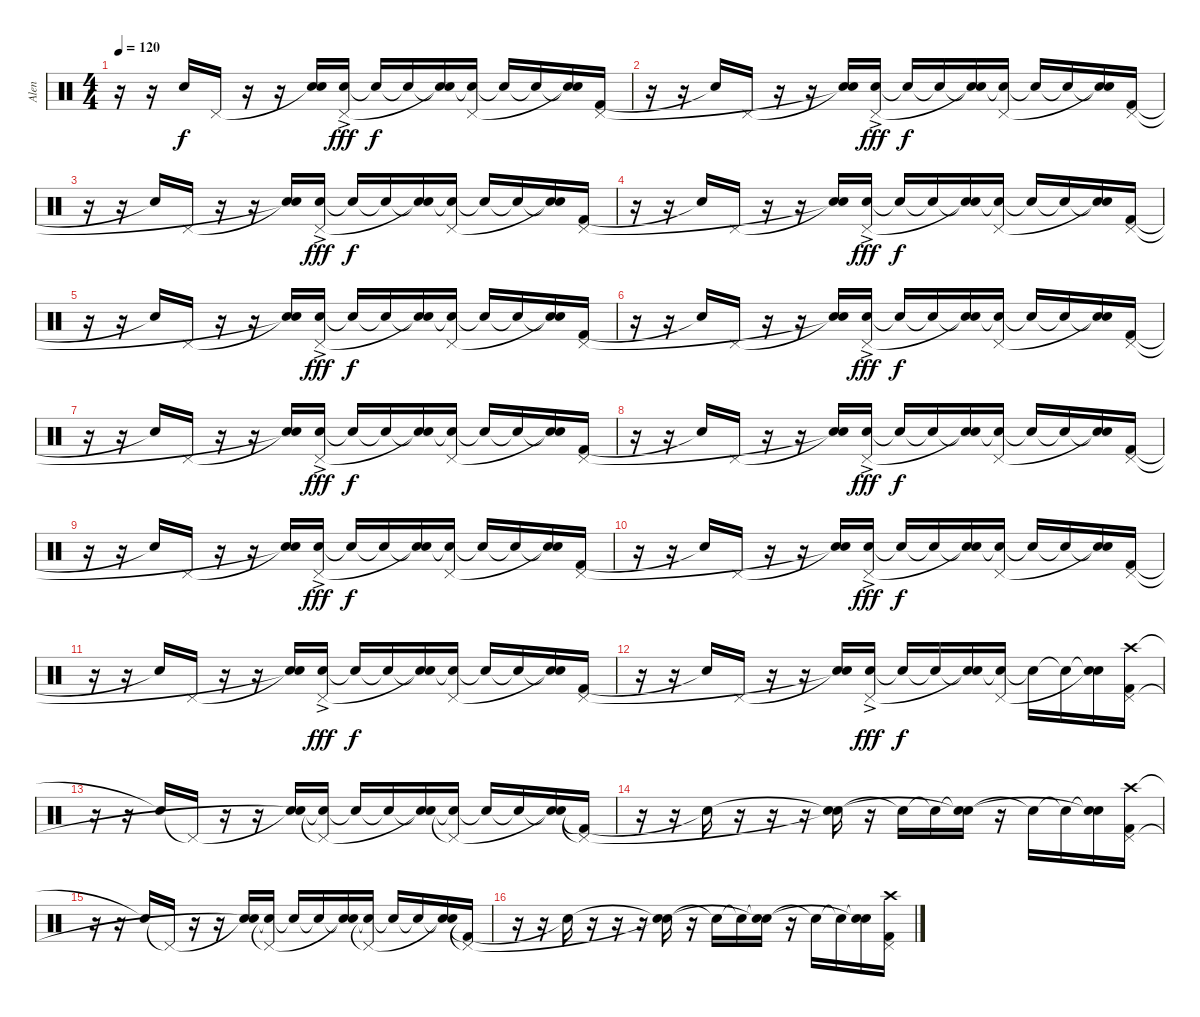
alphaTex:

\track ("Alen" "Alen") {instrument percussion}
\staff {score}
\articulation defaults
\ts (4 4)
\tempo 120
\clef neutral
\ks c
r.16{dy f} r.16 "Snare (hit)"{t}.16 "Pedal Hi-Hat (hit)".16 r.16 r.16 ("Snare (hit)"{t} "Snare (hit)"{t}).16 ("Snare (hit) 2"{ac} "Pedal Hi-Hat (hit)").16{dy fff} "Snare (hit)"{t}.16{dy f} "Snare (hit)"{t}.16 ("Snare (hit)"{t} "Snare (hit)"{t}).16 ("Snare (hit)"{t} "Pedal Hi-Hat (hit)").16 "Snare (hit)"{t}.16 "Snare (hit)"{t}.16 ("Snare (hit)"{t} "Snare (hit)"{t}).16 ("Kick (hit) 2" "Pedal Hi-Hat (hit)").16 |
r.16 r.16 "Snare (hit)"{t}.16 "Pedal Hi-Hat (hit)".16 r.16 r.16 ("Snare (hit)"{t} "Snare (hit)"{t}).16 ("Snare (hit) 2"{ac} "Pedal Hi-Hat (hit)").16{dy fff} "Snare (hit)"{t}.16{dy f} "Snare (hit)"{t}.16 ("Snare (hit)"{t} "Snare (hit)"{t}).16 ("Snare (hit)"{t} "Pedal Hi-Hat (hit)").16 "Snare (hit)"{t}.16 "Snare (hit)"{t}.16 ("Snare (hit)"{t} "Snare (hit)"{t}).16 ("Kick (hit) 2" "Pedal Hi-Hat (hit)").16 |
r.16 r.16 "Snare (hit)"{t}.16 "Pedal Hi-Hat (hit)".16 r.16 r.16 ("Snare (hit)"{t} "Snare (hit)"{t}).16 ("Snare (hit) 2"{ac} "Pedal Hi-Hat (hit)").16{dy fff} "Snare (hit)"{t}.16{dy f} "Snare (hit)"{t}.16 ("Snare (hit)"{t} "Snare (hit)"{t}).16 ("Snare (hit)"{t} "Pedal Hi-Hat (hit)").16 "Snare (hit)"{t}.16 "Snare (hit)"{t}.16 ("Snare (hit)"{t} "Snare (hit)"{t}).16 ("Kick (hit) 2" "Pedal Hi-Hat (hit)").16 |
r.16 r.16 "Snare (hit)"{t}.16 "Pedal Hi-Hat (hit)".16 r.16 r.16 ("Snare (hit)"{t} "Snare (hit)"{t}).16 ("Snare (hit) 2"{ac} "Pedal Hi-Hat (hit)").16{dy fff} "Snare (hit)"{t}.16{dy f} "Snare (hit)"{t}.16 ("Snare (hit)"{t} "Snare (hit)"{t}).16 ("Snare (hit)"{t} "Pedal Hi-Hat (hit)").16 "Snare (hit)"{t}.16 "Snare (hit)"{t}.16 ("Snare (hit)"{t} "Snare (hit)"{t}).16 ("Kick (hit) 2" "Pedal Hi-Hat (hit)").16 |
r.16 r.16 "Snare (hit)"{t}.16 "Pedal Hi-Hat (hit)".16 r.16 r.16 ("Snare (hit)"{t} "Snare (hit)"{t}).16 ("Snare (hit) 2"{ac} "Pedal Hi-Hat (hit)").16{dy fff} "Snare (hit)"{t}.16{dy f} "Snare (hit)"{t}.16 ("Snare (hit)"{t} "Snare (hit)"{t}).16 ("Snare (hit)"{t} "Pedal Hi-Hat (hit)").16 "Snare (hit)"{t}.16 "Snare (hit)"{t}.16 ("Snare (hit)"{t} "Snare (hit)"{t}).16 ("Kick (hit) 2" "Pedal Hi-Hat (hit)").16 |
r.16 r.16 "Snare (hit)"{t}.16 "Pedal Hi-Hat (hit)".16 r.16 r.16 ("Snare (hit)"{t} "Snare (hit)"{t}).16 ("Snare (hit) 2"{ac} "Pedal Hi-Hat (hit)").16{dy fff} "Snare (hit)"{t}.16{dy f} "Snare (hit)"{t}.16 ("Snare (hit)"{t} "Snare (hit)"{t}).16 ("Snare (hit)"{t} "Pedal Hi-Hat (hit)").16 "Snare (hit)"{t}.16 "Snare (hit)"{t}.16 ("Snare (hit)"{t} "Snare (hit)"{t}).16 ("Kick (hit) 2" "Pedal Hi-Hat (hit)").16 |
r.16 r.16 "Snare (hit)"{t}.16 "Pedal Hi-Hat (hit)".16 r.16 r.16 ("Snare (hit)"{t} "Snare (hit)"{t}).16 ("Snare (hit) 2"{ac} "Pedal Hi-Hat (hit)").16{dy fff} "Snare (hit)"{t}.16{dy f} "Snare (hit)"{t}.16 ("Snare (hit)"{t} "Snare (hit)"{t}).16 ("Snare (hit)"{t} "Pedal Hi-Hat (hit)").16 "Snare (hit)"{t}.16 "Snare (hit)"{t}.16 ("Snare (hit)"{t} "Snare (hit)"{t}).16 ("Kick (hit) 2" "Pedal Hi-Hat (hit)").16 |
r.16 r.16 "Snare (hit)"{t}.16 "Pedal Hi-Hat (hit)".16 r.16 r.16 ("Snare (hit)"{t} "Snare (hit)"{t}).16 ("Snare (hit) 2"{ac} "Pedal Hi-Hat (hit)").16{dy fff} "Snare (hit)"{t}.16{dy f} "Snare (hit)"{t}.16 ("Snare (hit)"{t} "Snare (hit)"{t}).16 ("Snare (hit)"{t} "Pedal Hi-Hat (hit)").16 "Snare (hit)"{t}.16 "Snare (hit)"{t}.16 ("Snare (hit)"{t} "Snare (hit)"{t}).16 ("Kick (hit) 2" "Pedal Hi-Hat (hit)").16 |
r.16 r.16 "Snare (hit)"{t}.16 "Pedal Hi-Hat (hit)".16 r.16 r.16 ("Snare (hit)"{t} "Snare (hit)"{t}).16 ("Snare (hit) 2"{ac} "Pedal Hi-Hat (hit)").16{dy fff} "Snare (hit)"{t}.16{dy f} "Snare (hit)"{t}.16 ("Snare (hit)"{t} "Snare (hit)"{t}).16 ("Snare (hit)"{t} "Pedal Hi-Hat (hit)").16 "Snare (hit)"{t}.16 "Snare (hit)"{t}.16 ("Snare (hit)"{t} "Snare (hit)"{t}).16 ("Kick (hit) 2" "Pedal Hi-Hat (hit)").16 |
r.16 r.16 "Snare (hit)"{t}.16 "Pedal Hi-Hat (hit)".16 r.16 r.16 ("Snare (hit)"{t} "Snare (hit)"{t}).16 ("Snare (hit) 2"{ac} "Pedal Hi-Hat (hit)").16{dy fff} "Snare (hit)"{t}.16{dy f} "Snare (hit)"{t}.16 ("Snare (hit)"{t} "Snare (hit)"{t}).16 ("Snare (hit)"{t} "Pedal Hi-Hat (hit)").16 "Snare (hit)"{t}.16 "Snare (hit)"{t}.16 ("Snare (hit)"{t} "Snare (hit)"{t}).16 ("Kick (hit) 2" "Pedal Hi-Hat (hit)").16 |
r.16 r.16 "Snare (hit)"{t}.16 "Pedal Hi-Hat (hit)".16 r.16 r.16 ("Snare (hit)"{t} "Snare (hit)"{t}).16 ("Snare (hit) 2"{ac} "Pedal Hi-Hat (hit)").16{dy fff} "Snare (hit)"{t}.16{dy f} "Snare (hit)"{t}.16 ("Snare (hit)"{t} "Snare (hit)"{t}).16 ("Snare (hit)"{t} "Pedal Hi-Hat (hit)").16 "Snare (hit)"{t}.16 "Snare (hit)"{t}.16 ("Snare (hit)"{t} "Snare (hit)"{t}).16 ("Kick (hit) 2" "Pedal Hi-Hat (hit)").16 |
r.16 r.16 "Snare (hit)"{t}.16 "Pedal Hi-Hat (hit)".16 r.16 r.16 ("Snare (hit)"{t} "Snare (hit)"{t}).16 ("Snare (hit) 2"{ac} "Pedal Hi-Hat (hit)").16{dy fff} "Snare (hit)"{t}.16{dy f} "Snare (hit)"{t}.16 ("Snare (hit)"{t} "Snare (hit)"{t}).16 ("Snare (hit)"{t} "Pedal Hi-Hat (hit)").16 "Snare (hit)"{t}.16 "Snare (hit)"{t}.16 ("Snare (hit)"{t} "Snare (hit)"{t}).16 ("Crash high (hit)" "Pedal Hi-Hat (hit)" "Kick (hit) 2").16 |
r.16 r.16 "Snare (hit)"{t}.16 "Pedal Hi-Hat (hit)"{t}.16 r.16 r.16 ("Snare (hit)"{t} "Snare (hit)"{t}).16 ("Snare (hit) 2"{t} "Pedal Hi-Hat (hit)"{t}).16 "Snare (hit)"{t}.16 "Snare (hit)"{t}.16 ("Snare (hit)"{t} "Snare (hit)"{t}).16 ("Snare (hit)"{t} "Pedal Hi-Hat (hit)"{t}).16 "Snare (hit)"{t}.16 "Snare (hit)"{t}.16 ("Snare (hit)"{t} "Snare (hit)"{t}).16 ("Kick (hit) 2"{t} "Pedal Hi-Hat (hit)"{t}).16 |
r.16 r.16 "Snare (hit)"{t}.16 r.16 r.16 r.16 ("Snare (hit)"{t} "Snare (hit)"{t}).16 r.16 "Snare (hit)"{t}.16 "Snare (hit)"{t}.16 ("Snare (hit)"{t} "Snare (hit)"{t}).16 r.16 "Snare (hit)"{t}.16 "Snare (hit)"{t}.16 ("Snare (hit)"{t} "Snare (hit)"{t}).16 ("Crash high (hit)" "Pedal Hi-Hat (hit)" "Kick (hit) 2").16 |
r.16 r.16 "Snare (hit)"{t}.16 "Pedal Hi-Hat (hit)"{t}.16 r.16 r.16 ("Snare (hit)"{t} "Snare (hit)"{t}).16 ("Snare (hit) 2"{t} "Pedal Hi-Hat (hit)"{t}).16 "Snare (hit)"{t}.16 "Snare (hit)"{t}.16 ("Snare (hit)"{t} "Snare (hit)"{t}).16 ("Snare (hit)"{t} "Pedal Hi-Hat (hit)"{t}).16 "Snare (hit)"{t}.16 "Snare (hit)"{t}.16 ("Snare (hit)"{t} "Snare (hit)"{t}).16 ("Kick (hit) 2"{t} "Pedal Hi-Hat (hit)"{t}).16 |
r.16 r.16 "Snare (hit)"{t}.16 r.16 r.16 r.16 ("Snare (hit)"{t} "Snare (hit)"{t}).16 r.16 "Snare (hit)"{t}.16 "Snare (hit)"{t}.16 ("Snare (hit)"{t} "Snare (hit)"{t}).16 r.16 "Snare (hit)"{t}.16 "Snare (hit)"{t}.16 ("Snare (hit)"{t} "Snare (hit)"{t}).16 ("Crash high (hit)" "Pedal Hi-Hat (hit)" "Kick (hit) 2").16
